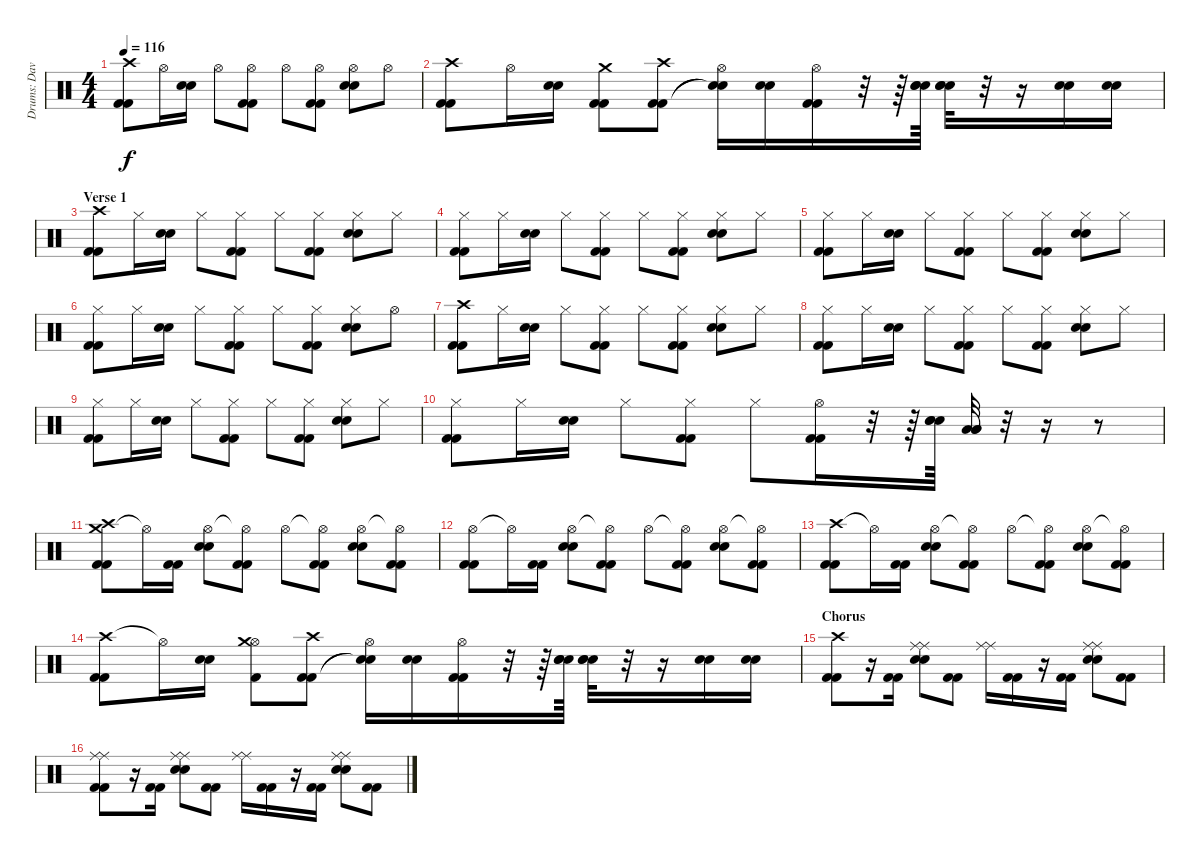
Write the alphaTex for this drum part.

\track ("Drums: Dave Krusen" "Drums: Dav") {instrument percussion}
\staff {score}
\articulation defaults
\ts (4 4)
\tempo 116
\clef neutral
\ks c
("Crash high (hit)" "Kick (hit) 2" "Kick (hit) 2").8{dy f} "Hi-Hat (open)".16 ("Electric Snare (hit)" "Electric Snare (hit)").16 "Hi-Hat (open)".8 ("Hi-Hat (open)" "Kick (hit) 2" "Kick (hit) 2").8 "Hi-Hat (open)".8 ("Hi-Hat (open)" "Kick (hit) 2" "Kick (hit) 2").8 ("Hi-Hat (open)" "Electric Snare (hit)" "Electric Snare (hit)").8 "Hi-Hat (open)".8 |
("Crash high (hit)" "Kick (hit) 2" "Kick (hit) 2").8 "Hi-Hat (open)".16 ("Electric Snare (hit)" "Electric Snare (hit)").16 ("Kick (hit) 2" "Crash medium (hit)" "Kick (hit) 2").8 ("Crash high (hit)" "Kick (hit) 2" "Kick (hit) 2").8 ("Hi-Hat (open)" "Electric Snare (hit)"{t} "Snare (hit)"{t}).16 ("Electric Snare (hit)" "Electric Snare (hit)").16 ("Hi-Hat (open)" "Kick (hit) 2" "Kick (hit) 2").16 r.32 r.64 ("Electric Snare (hit)" "Electric Snare (hit)" "Electric Snare (hit)").64 ("Electric Snare (hit)" "Electric Snare (hit)" "Electric Snare (hit)").32 r.32 r.16 ("Electric Snare (hit)" "Electric Snare (hit)").16 ("Electric Snare (hit)" "Electric Snare (hit)").16 |
\section ("" "Verse 1")
("Crash high (hit)" "Kick (hit) 2" "Kick (hit) 2").8 "Hi-Hat (closed)".16 ("Electric Snare (hit)" "Electric Snare (hit)").16 "Hi-Hat (closed)".8 ("Hi-Hat (closed)" "Kick (hit) 2" "Kick (hit) 2").8 "Hi-Hat (closed)".8 ("Hi-Hat (closed)" "Kick (hit) 2" "Kick (hit) 2").8 ("Hi-Hat (closed)" "Electric Snare (hit)" "Electric Snare (hit)").8 "Hi-Hat (closed)".8 |
("Hi-Hat (closed)" "Kick (hit) 2" "Kick (hit) 2").8 "Hi-Hat (closed)".16 ("Electric Snare (hit)" "Electric Snare (hit)").16 "Hi-Hat (closed)".8 ("Hi-Hat (closed)" "Kick (hit) 2" "Kick (hit) 2").8 "Hi-Hat (closed)".8 ("Hi-Hat (closed)" "Kick (hit) 2" "Kick (hit) 2").8 ("Hi-Hat (closed)" "Electric Snare (hit)" "Electric Snare (hit)").8 "Hi-Hat (closed)".8 |
("Hi-Hat (closed)" "Kick (hit) 2" "Kick (hit) 2").8 "Hi-Hat (closed)".16 ("Electric Snare (hit)" "Electric Snare (hit)").16 "Hi-Hat (closed)".8 ("Hi-Hat (closed)" "Kick (hit) 2" "Kick (hit) 2").8 "Hi-Hat (closed)".8 ("Hi-Hat (closed)" "Kick (hit) 2" "Kick (hit) 2").8 ("Hi-Hat (closed)" "Electric Snare (hit)" "Electric Snare (hit)").8 "Hi-Hat (closed)".8 |
("Hi-Hat (closed)" "Kick (hit) 2" "Kick (hit) 2").8 "Hi-Hat (closed)".16 ("Electric Snare (hit)" "Electric Snare (hit)").16 "Hi-Hat (closed)".8 ("Hi-Hat (closed)" "Kick (hit) 2" "Kick (hit) 2").8 "Hi-Hat (closed)".8 ("Hi-Hat (closed)" "Kick (hit) 2" "Kick (hit) 2").8 ("Hi-Hat (closed)" "Electric Snare (hit)" "Electric Snare (hit)").8 "Hi-Hat (open)".8 |
("Crash high (hit)" "Kick (hit) 2" "Kick (hit) 2").8 "Hi-Hat (closed)".16 ("Electric Snare (hit)" "Electric Snare (hit)").16 "Hi-Hat (closed)".8 ("Hi-Hat (closed)" "Kick (hit) 2" "Kick (hit) 2").8 "Hi-Hat (closed)".8 ("Hi-Hat (closed)" "Kick (hit) 2" "Kick (hit) 2").8 ("Hi-Hat (closed)" "Electric Snare (hit)" "Electric Snare (hit)").8 "Hi-Hat (closed)".8 |
("Hi-Hat (closed)" "Kick (hit) 2" "Kick (hit) 2").8 "Hi-Hat (closed)".16 ("Electric Snare (hit)" "Electric Snare (hit)").16 "Hi-Hat (closed)".8 ("Hi-Hat (closed)" "Kick (hit) 2" "Kick (hit) 2").8 "Hi-Hat (closed)".8 ("Hi-Hat (closed)" "Kick (hit) 2" "Kick (hit) 2").8 ("Hi-Hat (closed)" "Electric Snare (hit)" "Electric Snare (hit)").8 "Hi-Hat (closed)".8 |
("Hi-Hat (closed)" "Kick (hit) 2" "Kick (hit) 2").8 "Hi-Hat (closed)".16 ("Electric Snare (hit)" "Electric Snare (hit)").16 "Hi-Hat (closed)".8 ("Hi-Hat (closed)" "Kick (hit) 2" "Kick (hit) 2").8 "Hi-Hat (closed)".8 ("Hi-Hat (closed)" "Kick (hit) 2" "Kick (hit) 2").8 ("Hi-Hat (closed)" "Electric Snare (hit)" "Electric Snare (hit)").8 "Hi-Hat (closed)".8 |
("Hi-Hat (closed)" "Kick (hit) 2" "Kick (hit) 2").8 "Hi-Hat (closed)".16 ("Electric Snare (hit)" "Electric Snare (hit)").16 "Hi-Hat (closed)".8 ("Hi-Hat (closed)" "Kick (hit) 2" "Kick (hit) 2").8 "Hi-Hat (closed)".8 ("Hi-Hat (open)" "Kick (hit) 2" "Kick (hit) 2").16 r.32 r.64 ("Electric Snare (hit)" "Electric Snare (hit)" "Electric Snare (hit)").64 ("Low Tom (hit)" "Low Tom (hit)" "Low Tom (hit)").32 r.32 r.16 r.8 |
("Crash medium (hit)" "Crash high (hit)" "Kick (hit) 2" "Kick (hit) 2").8 "Hi-Hat (open)"{t}.16 ("Kick (hit) 2" "Kick (hit) 2").16 ("Hi-Hat (open)" "Electric Snare (hit)" "Electric Snare (hit)").8 ("Hi-Hat (open)"{t} "Kick (hit) 2" "Kick (hit) 2").8 "Hi-Hat (open)".8 ("Hi-Hat (open)"{t} "Kick (hit) 2" "Kick (hit) 2").8 ("Hi-Hat (open)" "Electric Snare (hit)" "Electric Snare (hit)").8 ("Hi-Hat (open)"{t} "Kick (hit) 2" "Kick (hit) 2").8 |
("Hi-Hat (open)" "Kick (hit) 2" "Kick (hit) 2").8 "Hi-Hat (open)"{t}.16 ("Kick (hit) 2" "Kick (hit) 2").16 ("Hi-Hat (open)" "Electric Snare (hit)" "Electric Snare (hit)").8 ("Hi-Hat (open)"{t} "Kick (hit) 2" "Kick (hit) 2").8 "Hi-Hat (open)".8 ("Hi-Hat (open)"{t} "Kick (hit) 2" "Kick (hit) 2").8 ("Hi-Hat (open)" "Electric Snare (hit)" "Electric Snare (hit)").8 ("Hi-Hat (open)"{t} "Kick (hit) 2" "Kick (hit) 2").8 |
("Crash high (hit)" "Kick (hit) 2" "Kick (hit) 2").8 "Hi-Hat (open)"{t}.16 ("Kick (hit) 2" "Kick (hit) 2").16 ("Hi-Hat (open)" "Electric Snare (hit)" "Electric Snare (hit)").8 ("Hi-Hat (open)"{t} "Kick (hit) 2" "Kick (hit) 2").8 "Hi-Hat (open)".8 ("Hi-Hat (open)"{t} "Kick (hit) 2" "Kick (hit) 2").8 ("Hi-Hat (open)" "Electric Snare (hit)" "Electric Snare (hit)").8 ("Hi-Hat (open)"{t} "Kick (hit) 2" "Kick (hit) 2").8 |
("Crash high (hit)" "Kick (hit) 2" "Kick (hit) 2").8 "Hi-Hat (open)"{t}.16 ("Electric Snare (hit)" "Electric Snare (hit)").16 ("Hi-Hat (open)" "Crash medium (hit)" "Kick (hit) 2").8 ("Crash high (hit)" "Kick (hit) 2" "Kick (hit) 2").8 ("Hi-Hat (open)" "Electric Snare (hit)"{t} "Snare (hit)"{t}).16 ("Electric Snare (hit)" "Electric Snare (hit)").16 ("Hi-Hat (open)" "Kick (hit) 2" "Kick (hit) 2").16 r.32 r.64 ("Electric Snare (hit)" "Electric Snare (hit)" "Electric Snare (hit)").64 ("Electric Snare (hit)" "Electric Snare (hit)" "Electric Snare (hit)").32 r.32 r.16 ("Electric Snare (hit)" "Electric Snare (hit)").16 ("Electric Snare (hit)" "Electric Snare (hit)").16 |
\section ("" "Chorus")
("Crash high (hit)" "Kick (hit) 2" "Kick (hit) 2").8 r.16 ("Kick (hit) 2" "Kick (hit) 2").16 ("Ride (middle)" "Ride (middle)" "Electric Snare (hit)" "Electric Snare (hit)").8 ("Kick (hit) 2" "Kick (hit) 2").8 ("Ride (middle)" "Ride (middle)").16 ("Kick (hit) 2" "Kick (hit) 2").16 r.16 ("Kick (hit) 2" "Kick (hit) 2").16 ("Ride (middle)" "Ride (middle)" "Electric Snare (hit)" "Electric Snare (hit)").8 ("Kick (hit) 2" "Kick (hit) 2").8 |
("Ride (middle)" "Ride (middle)" "Kick (hit) 2" "Kick (hit) 2").8 r.16 ("Kick (hit) 2" "Kick (hit) 2").16 ("Ride (middle)" "Ride (middle)" "Electric Snare (hit)" "Electric Snare (hit)").8 ("Kick (hit) 2" "Kick (hit) 2").8 ("Ride (middle)" "Ride (middle)").16 ("Kick (hit) 2" "Kick (hit) 2").16 r.16 ("Kick (hit) 2" "Kick (hit) 2").16 ("Ride (middle)" "Ride (middle)" "Electric Snare (hit)" "Electric Snare (hit)").8 ("Kick (hit) 2" "Kick (hit) 2").8
